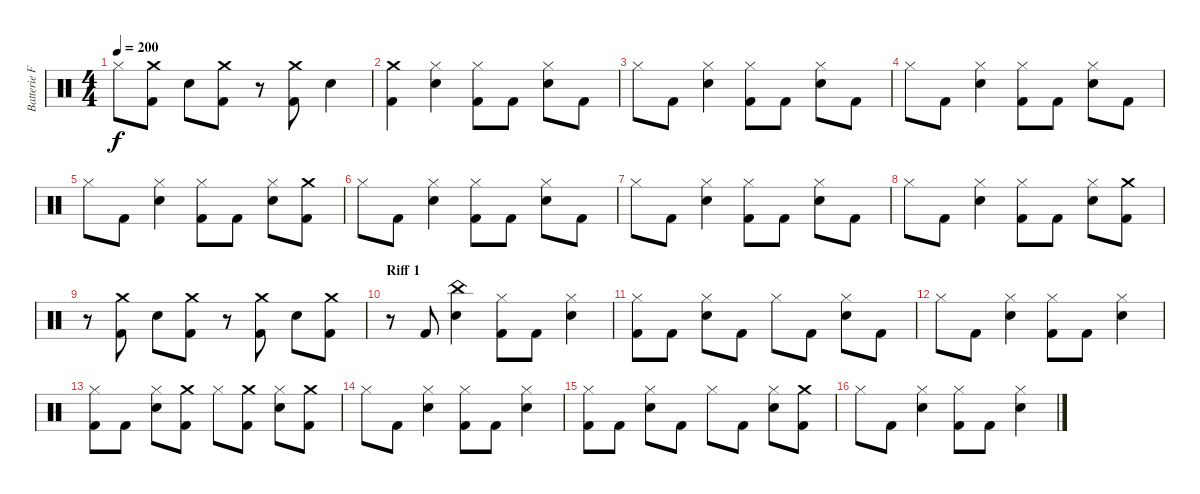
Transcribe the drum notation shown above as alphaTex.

\track ("Batterie Franck" "Batterie F") {instrument percussion}
\staff {score}
\articulation defaults
\ts (4 4)
\tempo 200
\clef neutral
\ks c "Hi-Hat (closed)".8{dy f}
("Crash medium (hit)" "Kick (hit) 2").8 "Snare (hit) 2".8 ("Crash medium (hit)" "Kick (hit) 2").8 r.8 ("Crash medium (hit)" "Kick (hit) 2").8 "Snare (hit) 2".4 |
("Crash medium (hit)" "Kick (hit) 2").4 ("Hi-Hat (closed)" "Snare (hit) 2").4 ("Hi-Hat (closed)" "Kick (hit) 2").8 "Kick (hit) 2".8 ("Hi-Hat (closed)" "Snare (hit) 2").8 "Kick (hit) 2".8 |
"Hi-Hat (closed)".8 "Kick (hit) 2".8 ("Hi-Hat (closed)" "Snare (hit) 2").4 ("Hi-Hat (closed)" "Kick (hit) 2").8 "Kick (hit) 2".8 ("Hi-Hat (closed)" "Snare (hit) 2").8 "Kick (hit) 2".8 |
"Hi-Hat (closed)".8 "Kick (hit) 2".8 ("Hi-Hat (closed)" "Snare (hit) 2").4 ("Hi-Hat (closed)" "Kick (hit) 2").8 "Kick (hit) 2".8 ("Hi-Hat (closed)" "Snare (hit) 2").8 "Kick (hit) 2".8 |
"Hi-Hat (closed)".8 "Kick (hit) 2".8 ("Hi-Hat (closed)" "Snare (hit) 2").4 ("Hi-Hat (closed)" "Kick (hit) 2").8 "Kick (hit) 2".8 ("Hi-Hat (closed)" "Snare (hit) 2").8 ("Crash medium (hit)" "Kick (hit) 2").8 |
"Hi-Hat (closed)".8 "Kick (hit) 2".8 ("Hi-Hat (closed)" "Snare (hit) 2").4 ("Hi-Hat (closed)" "Kick (hit) 2").8 "Kick (hit) 2".8 ("Hi-Hat (closed)" "Snare (hit) 2").8 "Kick (hit) 2".8 |
"Hi-Hat (closed)".8 "Kick (hit) 2".8 ("Hi-Hat (closed)" "Snare (hit) 2").4 ("Hi-Hat (closed)" "Kick (hit) 2").8 "Kick (hit) 2".8 ("Hi-Hat (closed)" "Snare (hit) 2").8 "Kick (hit) 2".8 |
"Hi-Hat (closed)".8 "Kick (hit) 2".8 ("Hi-Hat (closed)" "Snare (hit) 2").4 ("Hi-Hat (closed)" "Kick (hit) 2").8 "Kick (hit) 2".8 ("Hi-Hat (closed)" "Snare (hit) 2").8 ("Crash medium (hit)" "Kick (hit) 2").8 |
r.8 ("Crash medium (hit)" "Kick (hit) 2").8 "Snare (hit) 2".8 ("Crash medium (hit)" "Kick (hit) 2").8 r.8 ("Crash medium (hit)" "Kick (hit) 2").8 "Snare (hit) 2".8 ("Crash medium (hit)" "Kick (hit) 2").8 |
\section ("" "Riff 1")
r.8 "Kick (hit) 2".8 ("China (hit)" "Snare (hit) 2").4 ("Hi-Hat (closed)" "Kick (hit) 2").8 "Kick (hit) 2".8 ("Hi-Hat (closed)" "Snare (hit) 2").4 |
("Hi-Hat (closed)" "Kick (hit) 2").8 "Kick (hit) 2".8 ("Hi-Hat (closed)" "Snare (hit) 2").8 "Kick (hit) 2".8 "Hi-Hat (closed)".8 "Kick (hit) 2".8 ("Hi-Hat (closed)" "Snare (hit) 2").8 "Kick (hit) 2".8 |
"Hi-Hat (closed)".8 "Kick (hit) 2".8 ("Hi-Hat (closed)" "Snare (hit) 2").4 ("Hi-Hat (closed)" "Kick (hit) 2").8 "Kick (hit) 2".8 ("Hi-Hat (closed)" "Snare (hit) 2").4 |
("Hi-Hat (closed)" "Kick (hit) 2").8 "Kick (hit) 2".8 ("Hi-Hat (closed)" "Snare (hit) 2").8 ("Crash medium (hit)" "Kick (hit) 2").8 "Hi-Hat (closed)".8 ("Crash medium (hit)" "Kick (hit) 2").8 ("Hi-Hat (closed)" "Snare (hit) 2").8 ("Crash medium (hit)" "Kick (hit) 2").8 |
"Hi-Hat (closed)".8 "Kick (hit) 2".8 ("Hi-Hat (closed)" "Snare (hit) 2").4 ("Hi-Hat (closed)" "Kick (hit) 2").8 "Kick (hit) 2".8 ("Hi-Hat (closed)" "Snare (hit) 2").4 |
("Hi-Hat (closed)" "Kick (hit) 2").8 "Kick (hit) 2".8 ("Hi-Hat (closed)" "Snare (hit) 2").8 "Kick (hit) 2".8 "Hi-Hat (closed)".8 "Kick (hit) 2".8 ("Hi-Hat (closed)" "Snare (hit) 2").8 ("Crash medium (hit)" "Kick (hit) 2").8 |
"Hi-Hat (closed)".8 "Kick (hit) 2".8 ("Hi-Hat (closed)" "Snare (hit) 2").4 ("Hi-Hat (closed)" "Kick (hit) 2").8 "Kick (hit) 2".8 ("Hi-Hat (closed)" "Snare (hit) 2").4
